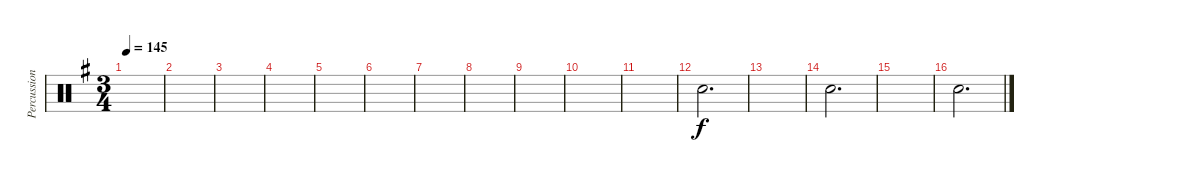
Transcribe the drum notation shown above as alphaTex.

\track ("Percussioni" "Percussion") {instrument percussion}
\staff {score}
\articulation defaults
\ts (3 4)
\tempo 145
\clef neutral
\ks g
|
|
|
|
|
|
|
|
|
|
|
"Snare (hit) 2".2{d} |
|
"Snare (hit) 2".2{d} |
|
"Snare (hit) 2".2{d}
